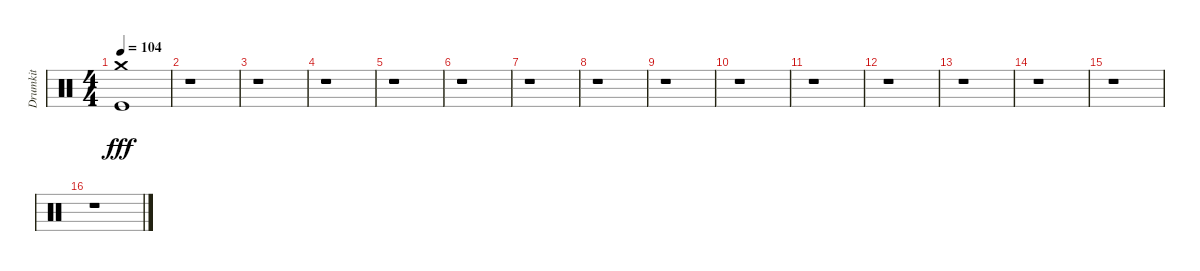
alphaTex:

\track ("Drumkit" "Drumkit") {instrument percussion}
\staff {score}
\articulation defaults
\ts (4 4)
\tempo 104
\clef neutral
\ks c
("Crash medium (hit)" "Kick (hit)").1{dy fff} |
r.1 |
r.1 |
r.1 |
r.1 |
r.1 |
r.1 |
r.1 |
r.1 |
r.1 |
r.1 |
r.1 |
r.1 |
r.1 |
r.1 |
r.1
